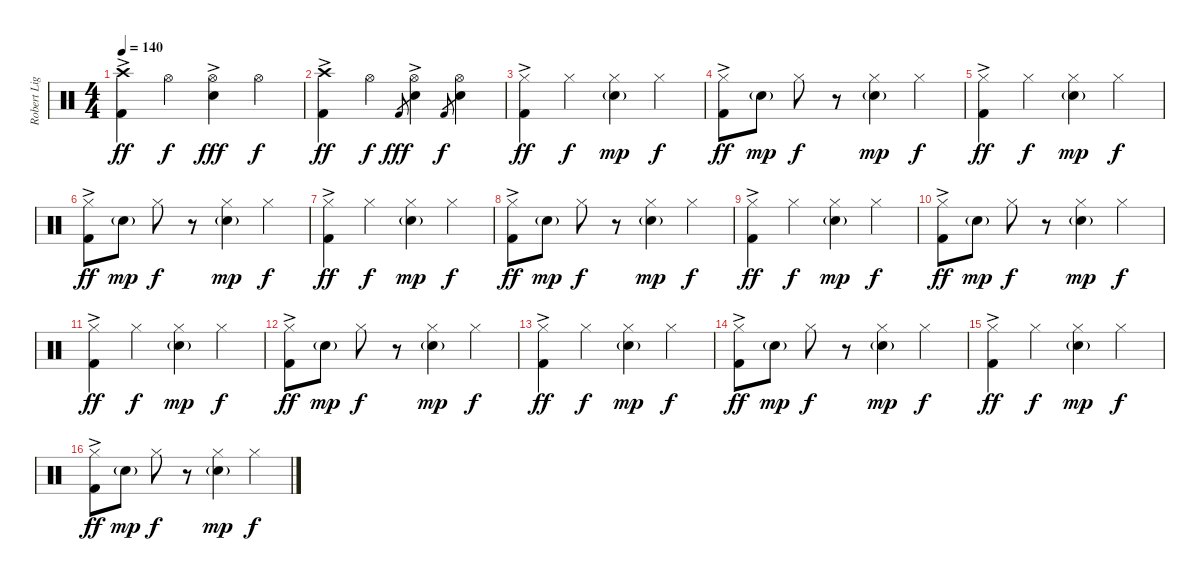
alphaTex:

\track ("Robert Ligiewicz (Perkusja)" "Robert Lig") {instrument percussion}
\staff {score}
\articulation defaults
\ts (4 4)
\tempo 140
\clef neutral
\ks c
("Crash high (hit)" "Kick (hit) 2"{ac}).4{dy ff} "Hi-Hat (open)".4{dy f} ("Hi-Hat (open)" "Electric Snare (hit)"{ac}).4{dy fff} "Hi-Hat (open)".4{dy f} |
("Crash high (hit)" "Kick (hit) 2"{ac}).4{dy ff} "Hi-Hat (open)".4{dy f} "Kick (hit) 2".8{gr dy fff} ("Hi-Hat (open)" "Electric Snare (hit)"{ac}).4 "Kick (hit) 2".8{gr dy f} ("Hi-Hat (open)" "Electric Snare (hit)").4 |
("Hi-Hat (closed)" "Kick (hit) 2"{ac}).4{dy ff} "Hi-Hat (closed)".4{dy f} ("Hi-Hat (closed)" "Electric Snare (hit)"{g}).4{dy mp} "Hi-Hat (closed)".4{dy f} |
("Hi-Hat (closed)" "Kick (hit) 2"{ac}).8{dy ff} "Electric Snare (hit)"{g}.8{dy mp} "Hi-Hat (closed)".8{dy f} r.8 ("Hi-Hat (closed)" "Electric Snare (hit)"{g}).4{dy mp} "Hi-Hat (closed)".4{dy f} |
("Hi-Hat (closed)" "Kick (hit) 2"{ac}).4{dy ff} "Hi-Hat (closed)".4{dy f} ("Hi-Hat (closed)" "Electric Snare (hit)"{g}).4{dy mp} "Hi-Hat (closed)".4{dy f} |
("Hi-Hat (closed)" "Kick (hit) 2"{ac}).8{dy ff} "Electric Snare (hit)"{g}.8{dy mp} "Hi-Hat (closed)".8{dy f} r.8 ("Hi-Hat (closed)" "Electric Snare (hit)"{g}).4{dy mp} "Hi-Hat (closed)".4{dy f} |
("Hi-Hat (closed)" "Kick (hit) 2"{ac}).4{dy ff} "Hi-Hat (closed)".4{dy f} ("Hi-Hat (closed)" "Electric Snare (hit)"{g}).4{dy mp} "Hi-Hat (closed)".4{dy f} |
("Hi-Hat (closed)" "Kick (hit) 2"{ac}).8{dy ff} "Electric Snare (hit)"{g}.8{dy mp} "Hi-Hat (closed)".8{dy f} r.8 ("Hi-Hat (closed)" "Electric Snare (hit)"{g}).4{dy mp} "Hi-Hat (closed)".4{dy f} |
("Hi-Hat (closed)" "Kick (hit) 2"{ac}).4{dy ff} "Hi-Hat (closed)".4{dy f} ("Hi-Hat (closed)" "Electric Snare (hit)"{g}).4{dy mp} "Hi-Hat (closed)".4{dy f} |
("Hi-Hat (closed)" "Kick (hit) 2"{ac}).8{dy ff} "Electric Snare (hit)"{g}.8{dy mp} "Hi-Hat (closed)".8{dy f} r.8 ("Hi-Hat (closed)" "Electric Snare (hit)"{g}).4{dy mp} "Hi-Hat (closed)".4{dy f} |
("Hi-Hat (closed)" "Kick (hit) 2"{ac}).4{dy ff} "Hi-Hat (closed)".4{dy f} ("Hi-Hat (closed)" "Electric Snare (hit)"{g}).4{dy mp} "Hi-Hat (closed)".4{dy f} |
("Hi-Hat (closed)" "Kick (hit) 2"{ac}).8{dy ff} "Electric Snare (hit)"{g}.8{dy mp} "Hi-Hat (closed)".8{dy f} r.8 ("Hi-Hat (closed)" "Electric Snare (hit)"{g}).4{dy mp} "Hi-Hat (closed)".4{dy f} |
("Hi-Hat (closed)" "Kick (hit) 2"{ac}).4{dy ff} "Hi-Hat (closed)".4{dy f} ("Hi-Hat (closed)" "Electric Snare (hit)"{g}).4{dy mp} "Hi-Hat (closed)".4{dy f} |
("Hi-Hat (closed)" "Kick (hit) 2"{ac}).8{dy ff} "Electric Snare (hit)"{g}.8{dy mp} "Hi-Hat (closed)".8{dy f} r.8 ("Hi-Hat (closed)" "Electric Snare (hit)"{g}).4{dy mp} "Hi-Hat (closed)".4{dy f} |
("Hi-Hat (closed)" "Kick (hit) 2"{ac}).4{dy ff} "Hi-Hat (closed)".4{dy f} ("Hi-Hat (closed)" "Electric Snare (hit)"{g}).4{dy mp} "Hi-Hat (closed)".4{dy f} |
("Hi-Hat (closed)" "Kick (hit) 2"{ac}).8{dy ff} "Electric Snare (hit)"{g}.8{dy mp} "Hi-Hat (closed)".8{dy f} r.8 ("Hi-Hat (closed)" "Electric Snare (hit)"{g}).4{dy mp} "Hi-Hat (closed)".4{dy f}
